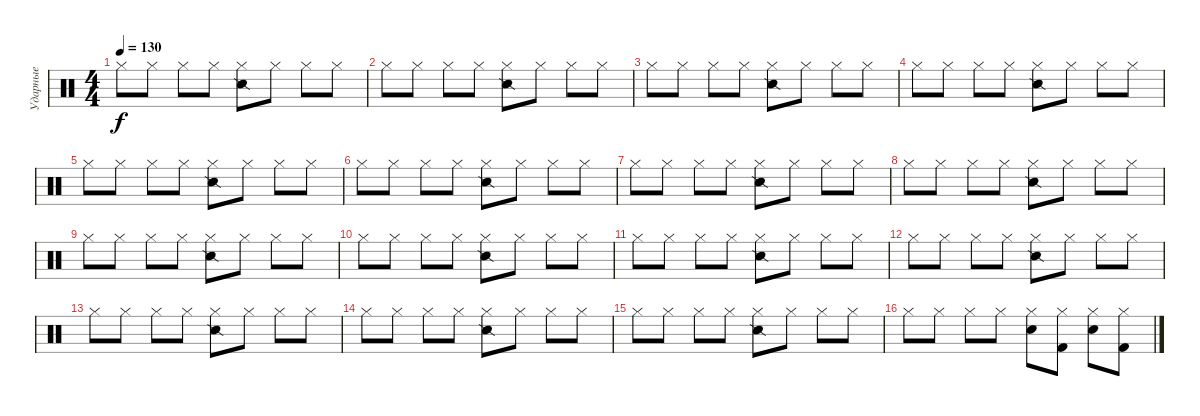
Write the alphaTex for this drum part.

\track ("Ударные" "Ударные") {instrument percussion}
\staff {score}
\articulation defaults
\ts (4 4)
\tempo 130
\clef neutral
\ks c "Hi-Hat (closed)".8{dy f} "Hi-Hat (closed)".8 "Hi-Hat (closed)".8 "Hi-Hat (closed)".8
("Hi-Hat (closed)" "Snare (side stick) 2").8 "Hi-Hat (closed)".8 "Hi-Hat (closed)".8 "Hi-Hat (closed)".8 |
"Hi-Hat (closed)".8 "Hi-Hat (closed)".8 "Hi-Hat (closed)".8 "Hi-Hat (closed)".8 ("Hi-Hat (closed)" "Snare (side stick) 2").8 "Hi-Hat (closed)".8 "Hi-Hat (closed)".8 "Hi-Hat (closed)".8 |
"Hi-Hat (closed)".8 "Hi-Hat (closed)".8 "Hi-Hat (closed)".8 "Hi-Hat (closed)".8 ("Hi-Hat (closed)" "Snare (side stick) 2").8 "Hi-Hat (closed)".8 "Hi-Hat (closed)".8 "Hi-Hat (closed)".8 |
"Hi-Hat (closed)".8 "Hi-Hat (closed)".8 "Hi-Hat (closed)".8 "Hi-Hat (closed)".8 ("Hi-Hat (closed)" "Snare (side stick) 2").8 "Hi-Hat (closed)".8 "Hi-Hat (closed)".8 "Hi-Hat (closed)".8 |
"Hi-Hat (closed)".8 "Hi-Hat (closed)".8 "Hi-Hat (closed)".8 "Hi-Hat (closed)".8 ("Hi-Hat (closed)" "Snare (side stick) 2").8 "Hi-Hat (closed)".8 "Hi-Hat (closed)".8 "Hi-Hat (closed)".8 |
"Hi-Hat (closed)".8 "Hi-Hat (closed)".8 "Hi-Hat (closed)".8 "Hi-Hat (closed)".8 ("Hi-Hat (closed)" "Snare (side stick) 2").8 "Hi-Hat (closed)".8 "Hi-Hat (closed)".8 "Hi-Hat (closed)".8 |
"Hi-Hat (closed)".8 "Hi-Hat (closed)".8 "Hi-Hat (closed)".8 "Hi-Hat (closed)".8 ("Hi-Hat (closed)" "Snare (side stick) 2").8 "Hi-Hat (closed)".8 "Hi-Hat (closed)".8 "Hi-Hat (closed)".8 |
"Hi-Hat (closed)".8 "Hi-Hat (closed)".8 "Hi-Hat (closed)".8 "Hi-Hat (closed)".8 ("Hi-Hat (closed)" "Snare (side stick) 2").8 "Hi-Hat (closed)".8 "Hi-Hat (closed)".8 "Hi-Hat (closed)".8 |
"Hi-Hat (closed)".8 "Hi-Hat (closed)".8 "Hi-Hat (closed)".8 "Hi-Hat (closed)".8 ("Hi-Hat (closed)" "Snare (side stick) 2").8 "Hi-Hat (closed)".8 "Hi-Hat (closed)".8 "Hi-Hat (closed)".8 |
"Hi-Hat (closed)".8 "Hi-Hat (closed)".8 "Hi-Hat (closed)".8 "Hi-Hat (closed)".8 ("Hi-Hat (closed)" "Snare (side stick) 2").8 "Hi-Hat (closed)".8 "Hi-Hat (closed)".8 "Hi-Hat (closed)".8 |
"Hi-Hat (closed)".8 "Hi-Hat (closed)".8 "Hi-Hat (closed)".8 "Hi-Hat (closed)".8 ("Hi-Hat (closed)" "Snare (side stick) 2").8 "Hi-Hat (closed)".8 "Hi-Hat (closed)".8 "Hi-Hat (closed)".8 |
"Hi-Hat (closed)".8 "Hi-Hat (closed)".8 "Hi-Hat (closed)".8 "Hi-Hat (closed)".8 ("Hi-Hat (closed)" "Snare (side stick) 2").8 "Hi-Hat (closed)".8 "Hi-Hat (closed)".8 "Hi-Hat (closed)".8 |
"Hi-Hat (closed)".8 "Hi-Hat (closed)".8 "Hi-Hat (closed)".8 "Hi-Hat (closed)".8 ("Hi-Hat (closed)" "Snare (side stick) 2").8 "Hi-Hat (closed)".8 "Hi-Hat (closed)".8 "Hi-Hat (closed)".8 |
"Hi-Hat (closed)".8 "Hi-Hat (closed)".8 "Hi-Hat (closed)".8 "Hi-Hat (closed)".8 ("Hi-Hat (closed)" "Snare (side stick) 2").8 "Hi-Hat (closed)".8 "Hi-Hat (closed)".8 "Hi-Hat (closed)".8 |
"Hi-Hat (closed)".8 "Hi-Hat (closed)".8 "Hi-Hat (closed)".8 "Hi-Hat (closed)".8 ("Hi-Hat (closed)" "Snare (side stick) 2").8 "Hi-Hat (closed)".8 "Hi-Hat (closed)".8 "Hi-Hat (closed)".8 |
"Hi-Hat (closed)".8 "Hi-Hat (closed)".8 "Hi-Hat (closed)".8 "Hi-Hat (closed)".8 ("Hi-Hat (closed)" "Electric Snare (hit)").8 ("Hi-Hat (closed)" "Kick (hit) 2").8 ("Hi-Hat (closed)" "Electric Snare (hit)").8 ("Hi-Hat (closed)" "Kick (hit) 2").8
